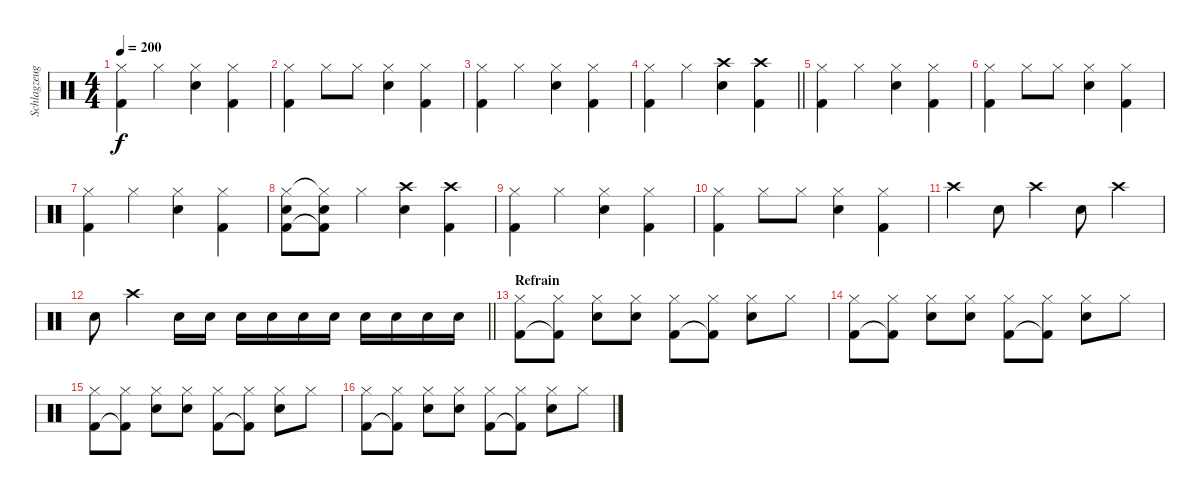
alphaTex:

\track ("Schlagzeug" "Schlagzeug") {instrument percussion}
\staff {score}
\articulation defaults
\ts (4 4)
\tempo 200
\clef neutral
\ks c
("Hi-Hat (closed)" "Kick (hit) 2").4{dy f} "Hi-Hat (closed)".4 ("Hi-Hat (closed)" "Snare (hit) 2").4 ("Hi-Hat (closed)" "Kick (hit) 2").4 |
("Hi-Hat (closed)" "Kick (hit) 2").4 "Hi-Hat (closed)".8 "Hi-Hat (closed)".8 ("Hi-Hat (closed)" "Snare (hit) 2").4 ("Hi-Hat (closed)" "Kick (hit) 2").4 |
("Hi-Hat (closed)" "Kick (hit) 2").4 "Hi-Hat (closed)".4 ("Hi-Hat (closed)" "Snare (hit) 2").4 ("Hi-Hat (closed)" "Kick (hit) 2").4 |
\barLineRight lightlight
("Hi-Hat (closed)" "Kick (hit) 2").4 "Hi-Hat (closed)".4 ("Crash high (hit)" "Snare (hit) 2").4 ("Crash high (hit)" "Kick (hit) 2").4 |
("Hi-Hat (closed)" "Kick (hit) 2").4 "Hi-Hat (closed)".4 ("Hi-Hat (closed)" "Snare (hit) 2").4 ("Hi-Hat (closed)" "Kick (hit) 2").4 |
("Hi-Hat (closed)" "Kick (hit) 2").4 "Hi-Hat (closed)".8 "Hi-Hat (closed)".8 ("Hi-Hat (closed)" "Snare (hit) 2").4 ("Hi-Hat (closed)" "Kick (hit) 2").4 |
("Hi-Hat (closed)" "Kick (hit) 2").4 "Hi-Hat (closed)".4 ("Hi-Hat (closed)" "Snare (hit) 2").4 ("Hi-Hat (closed)" "Kick (hit) 2").4 |
("Hi-Hat (closed)" "Snare (hit) 2" "Kick (hit) 2").8 ("Hi-Hat (closed)"{t} "Snare (hit) 2" "Kick (hit) 2"{t}).8 "Hi-Hat (closed)".4 ("Crash high (hit)" "Snare (hit) 2").4 ("Crash high (hit)" "Kick (hit) 2").4 |
("Hi-Hat (closed)" "Kick (hit) 2").4 "Hi-Hat (closed)".4 ("Hi-Hat (closed)" "Snare (hit) 2").4 ("Hi-Hat (closed)" "Kick (hit) 2").4 |
("Hi-Hat (closed)" "Kick (hit) 2").4 "Hi-Hat (closed)".8 "Hi-Hat (closed)".8 ("Hi-Hat (closed)" "Snare (hit) 2").4 ("Hi-Hat (closed)" "Kick (hit) 2").4 |
"Crash high (hit)".4 "Snare (hit) 2".8 "Crash high (hit)".4 "Snare (hit) 2".8 "Crash high (hit)".4 |
\barLineRight lightlight "Snare (hit) 2".8 "Crash high (hit)".4 "Snare (hit) 2".16 "Snare (hit) 2".16 "Snare (hit) 2".16 "Snare (hit) 2".16 "Snare (hit) 2".16 "Snare (hit) 2".16 "Snare (hit) 2".16 "Snare (hit) 2".16 "Snare (hit) 2".16 "Snare (hit) 2".16
|
\section ("" "Refrain")
("Hi-Hat (closed)" "Kick (hit) 2").8 ("Hi-Hat (closed)" "Kick (hit) 2"{t}).8 ("Hi-Hat (closed)" "Electric Snare (hit)").8 ("Hi-Hat (closed)" "Electric Snare (hit)").8 ("Hi-Hat (closed)" "Kick (hit) 2").8 ("Hi-Hat (closed)" "Kick (hit) 2"{t}).8 ("Hi-Hat (closed)" "Electric Snare (hit)").8 "Hi-Hat (closed)".8 |
("Hi-Hat (closed)" "Kick (hit) 2").8 ("Hi-Hat (closed)" "Kick (hit) 2"{t}).8 ("Hi-Hat (closed)" "Electric Snare (hit)").8 ("Hi-Hat (closed)" "Electric Snare (hit)").8 ("Hi-Hat (closed)" "Kick (hit) 2").8 ("Hi-Hat (closed)" "Kick (hit) 2"{t}).8 ("Hi-Hat (closed)" "Electric Snare (hit)").8 "Hi-Hat (closed)".8 |
("Hi-Hat (closed)" "Kick (hit) 2").8 ("Hi-Hat (closed)" "Kick (hit) 2"{t}).8 ("Hi-Hat (closed)" "Electric Snare (hit)").8 ("Hi-Hat (closed)" "Electric Snare (hit)").8 ("Hi-Hat (closed)" "Kick (hit) 2").8 ("Hi-Hat (closed)" "Kick (hit) 2"{t}).8 ("Hi-Hat (closed)" "Electric Snare (hit)").8 "Hi-Hat (closed)".8 |
("Hi-Hat (closed)" "Kick (hit) 2").8 ("Hi-Hat (closed)" "Kick (hit) 2"{t}).8 ("Hi-Hat (closed)" "Electric Snare (hit)").8 ("Hi-Hat (closed)" "Electric Snare (hit)").8 ("Hi-Hat (closed)" "Kick (hit) 2").8 ("Hi-Hat (closed)" "Kick (hit) 2"{t}).8 ("Hi-Hat (closed)" "Electric Snare (hit)").8 "Hi-Hat (closed)".8
